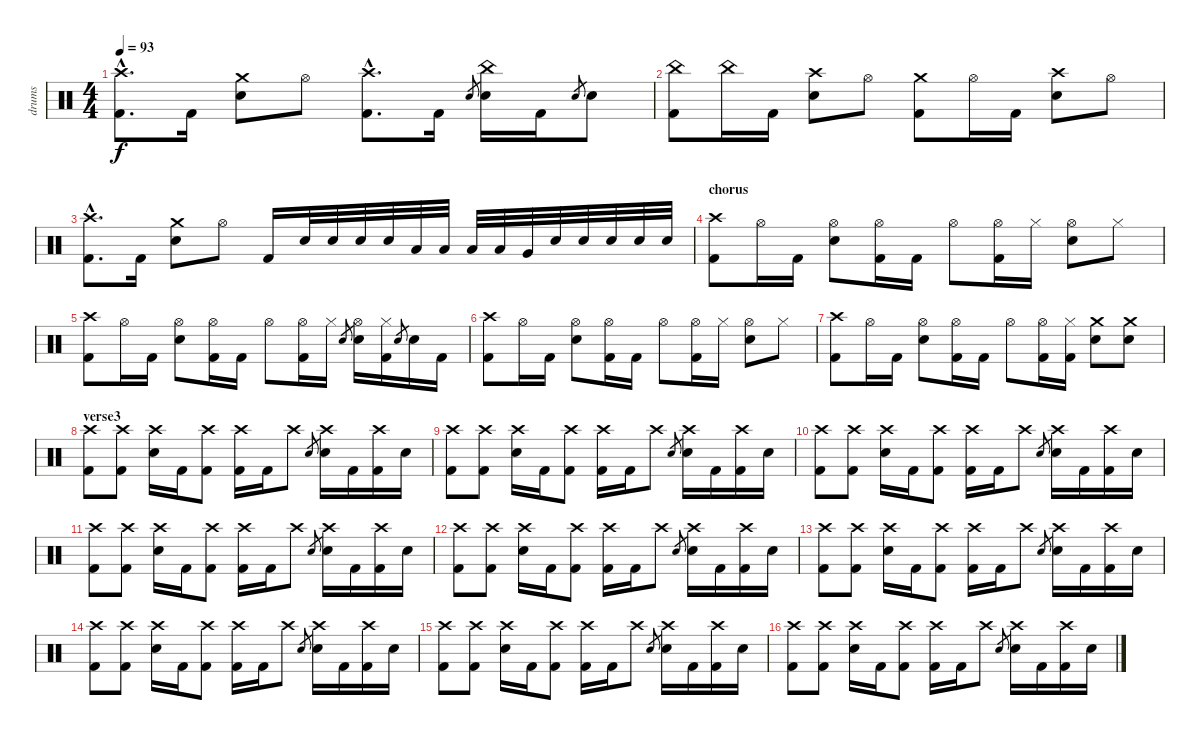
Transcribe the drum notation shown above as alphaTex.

\track ("drums" "drums") {instrument percussion}
\staff {score}
\articulation defaults
\ts (4 4)
\tempo 93
\clef neutral
\ks c
("Crash high (hit)"{hac} "Kick (hit) 2"{hac}).8{d dy f} "Kick (hit) 2".16 ("Crash medium (hit)" "Electric Snare (hit)").8 "Hi-Hat (open)".8 ("Crash high (hit)"{hac} "Kick (hit) 2"{hac}).8{d} "Kick (hit) 2".16 "Electric Snare (hit)".8{gr} ("China (hit)" "Electric Snare (hit)").16 "Kick (hit) 2".16 "Electric Snare (hit)".8{gr} "Electric Snare (hit)".8 |
("China (hit)" "Kick (hit) 2").8 "China (hit)".16 "Kick (hit) 2".16 ("Crash high (hit)" "Electric Snare (hit)").8 "Hi-Hat (open)".8 ("Crash medium (hit)" "Kick (hit) 2").8 "Hi-Hat (open)".16 "Kick (hit) 2".16 ("Crash high (hit)" "Electric Snare (hit)").8 "Hi-Hat (open)".8 |
("Crash high (hit)"{hac} "Kick (hit) 2"{hac}).8{d} "Kick (hit) 2".16 ("Crash medium (hit)" "Electric Snare (hit)").8 "Hi-Hat (open)".8 "Kick (hit) 2".16 "Electric Snare (hit)".32 "Electric Snare (hit)".32 "Electric Snare (hit)".32 "Electric Snare (hit)".32 "Low Tom (hit)".32 "Low Tom (hit)".32 "Low Tom (hit)".32 "Low Tom (hit)".32 "Very Low Tom (hit)".32 "Electric Snare (hit)".32 "Electric Snare (hit)".32 "Electric Snare (hit)".32 "Electric Snare (hit)".32 "Electric Snare (hit)".32 |
\section ("" "chorus")
("Crash high (hit)" "Kick (hit) 2").8 "Hi-Hat (open)".16 "Kick (hit) 2".16 ("Hi-Hat (open)" "Electric Snare (hit)").8 ("Hi-Hat (open)" "Kick (hit) 2").16 "Kick (hit) 2".16 "Hi-Hat (open)".8 ("Hi-Hat (open)" "Kick (hit) 2").16 "Hi-Hat (closed)".16 ("Hi-Hat (open)" "Electric Snare (hit)").8 "Hi-Hat (closed)".8 |
("Crash high (hit)" "Kick (hit) 2").8 "Hi-Hat (open)".16 "Kick (hit) 2".16 ("Hi-Hat (open)" "Electric Snare (hit)").8 ("Hi-Hat (open)" "Kick (hit) 2").16 "Kick (hit) 2".16 "Hi-Hat (open)".8 ("Hi-Hat (open)" "Kick (hit) 2").16 "Hi-Hat (closed)".16 "Electric Snare (hit)".8{gr} ("Hi-Hat (open)" "Electric Snare (hit)").16 ("Hi-Hat (closed)" "Kick (hit) 2").16 "Electric Snare (hit)".8{gr} "Electric Snare (hit)".16 "Kick (hit) 2".16 |
("Crash high (hit)" "Kick (hit) 2").8 "Hi-Hat (open)".16 "Kick (hit) 2".16 ("Hi-Hat (open)" "Electric Snare (hit)").8 ("Hi-Hat (open)" "Kick (hit) 2").16 "Kick (hit) 2".16 "Hi-Hat (open)".8 ("Hi-Hat (open)" "Kick (hit) 2").16 "Hi-Hat (closed)".16 ("Hi-Hat (open)" "Electric Snare (hit)").8 "Hi-Hat (closed)".8 |
("Crash high (hit)" "Kick (hit) 2").8 "Hi-Hat (open)".16 "Kick (hit) 2".16 ("Hi-Hat (open)" "Electric Snare (hit)").8 ("Hi-Hat (open)" "Kick (hit) 2").16 "Kick (hit) 2".16 "Hi-Hat (open)".8 ("Hi-Hat (open)" "Kick (hit) 2").16 ("Hi-Hat (closed)" "Kick (hit) 2").16 ("Crash medium (hit)" "Electric Snare (hit)").8 ("Crash medium (hit)" "Electric Snare (hit)").8 |
\section ("" "verse3")
("Crash high (hit)" "Kick (hit) 2").8 ("Crash high (hit)" "Kick (hit) 2").8 ("Crash high (hit)" "Electric Snare (hit)").16 "Kick (hit) 2".16 ("Crash high (hit)" "Kick (hit) 2").8 ("Crash high (hit)" "Kick (hit) 2").16 "Kick (hit) 2".16 "Crash high (hit)".8 "Electric Snare (hit)".8{gr} ("Crash high (hit)" "Electric Snare (hit)").16 "Kick (hit) 2".16 ("Crash high (hit)" "Kick (hit) 2").16 "Electric Snare (hit)".16 |
("Crash high (hit)" "Kick (hit) 2").8 ("Crash high (hit)" "Kick (hit) 2").8 ("Crash high (hit)" "Electric Snare (hit)").16 "Kick (hit) 2".16 ("Crash high (hit)" "Kick (hit) 2").8 ("Crash high (hit)" "Kick (hit) 2").16 "Kick (hit) 2".16 "Crash high (hit)".8 "Electric Snare (hit)".8{gr} ("Crash high (hit)" "Electric Snare (hit)").16 "Kick (hit) 2".16 ("Crash high (hit)" "Kick (hit) 2").16 "Electric Snare (hit)".16 |
("Crash high (hit)" "Kick (hit) 2").8 ("Crash high (hit)" "Kick (hit) 2").8 ("Crash high (hit)" "Electric Snare (hit)").16 "Kick (hit) 2".16 ("Crash high (hit)" "Kick (hit) 2").8 ("Crash high (hit)" "Kick (hit) 2").16 "Kick (hit) 2".16 "Crash high (hit)".8 "Electric Snare (hit)".8{gr} ("Crash high (hit)" "Electric Snare (hit)").16 "Kick (hit) 2".16 ("Crash high (hit)" "Kick (hit) 2").16 "Electric Snare (hit)".16 |
("Crash high (hit)" "Kick (hit) 2").8 ("Crash high (hit)" "Kick (hit) 2").8 ("Crash high (hit)" "Electric Snare (hit)").16 "Kick (hit) 2".16 ("Crash high (hit)" "Kick (hit) 2").8 ("Crash high (hit)" "Kick (hit) 2").16 "Kick (hit) 2".16 "Crash high (hit)".8 "Electric Snare (hit)".8{gr} ("Crash high (hit)" "Electric Snare (hit)").16 "Kick (hit) 2".16 ("Crash high (hit)" "Kick (hit) 2").16 "Electric Snare (hit)".16 |
("Crash high (hit)" "Kick (hit) 2").8 ("Crash high (hit)" "Kick (hit) 2").8 ("Crash high (hit)" "Electric Snare (hit)").16 "Kick (hit) 2".16 ("Crash high (hit)" "Kick (hit) 2").8 ("Crash high (hit)" "Kick (hit) 2").16 "Kick (hit) 2".16 "Crash high (hit)".8 "Electric Snare (hit)".8{gr} ("Crash high (hit)" "Electric Snare (hit)").16 "Kick (hit) 2".16 ("Crash high (hit)" "Kick (hit) 2").16 "Electric Snare (hit)".16 |
("Crash high (hit)" "Kick (hit) 2").8 ("Crash high (hit)" "Kick (hit) 2").8 ("Crash high (hit)" "Electric Snare (hit)").16 "Kick (hit) 2".16 ("Crash high (hit)" "Kick (hit) 2").8 ("Crash high (hit)" "Kick (hit) 2").16 "Kick (hit) 2".16 "Crash high (hit)".8 "Electric Snare (hit)".8{gr} ("Crash high (hit)" "Electric Snare (hit)").16 "Kick (hit) 2".16 ("Crash high (hit)" "Kick (hit) 2").16 "Electric Snare (hit)".16 |
("Crash high (hit)" "Kick (hit) 2").8 ("Crash high (hit)" "Kick (hit) 2").8 ("Crash high (hit)" "Electric Snare (hit)").16 "Kick (hit) 2".16 ("Crash high (hit)" "Kick (hit) 2").8 ("Crash high (hit)" "Kick (hit) 2").16 "Kick (hit) 2".16 "Crash high (hit)".8 "Electric Snare (hit)".8{gr} ("Crash high (hit)" "Electric Snare (hit)").16 "Kick (hit) 2".16 ("Crash high (hit)" "Kick (hit) 2").16 "Electric Snare (hit)".16 |
("Crash high (hit)" "Kick (hit) 2").8 ("Crash high (hit)" "Kick (hit) 2").8 ("Crash high (hit)" "Electric Snare (hit)").16 "Kick (hit) 2".16 ("Crash high (hit)" "Kick (hit) 2").8 ("Crash high (hit)" "Kick (hit) 2").16 "Kick (hit) 2".16 "Crash high (hit)".8 "Electric Snare (hit)".8{gr} ("Crash high (hit)" "Electric Snare (hit)").16 "Kick (hit) 2".16 ("Crash high (hit)" "Kick (hit) 2").16 "Electric Snare (hit)".16 |
("Crash high (hit)" "Kick (hit) 2").8 ("Crash high (hit)" "Kick (hit) 2").8 ("Crash high (hit)" "Electric Snare (hit)").16 "Kick (hit) 2".16 ("Crash high (hit)" "Kick (hit) 2").8 ("Crash high (hit)" "Kick (hit) 2").16 "Kick (hit) 2".16 "Crash high (hit)".8 "Electric Snare (hit)".8{gr} ("Crash high (hit)" "Electric Snare (hit)").16 "Kick (hit) 2".16 ("Crash high (hit)" "Kick (hit) 2").16 "Electric Snare (hit)".16
